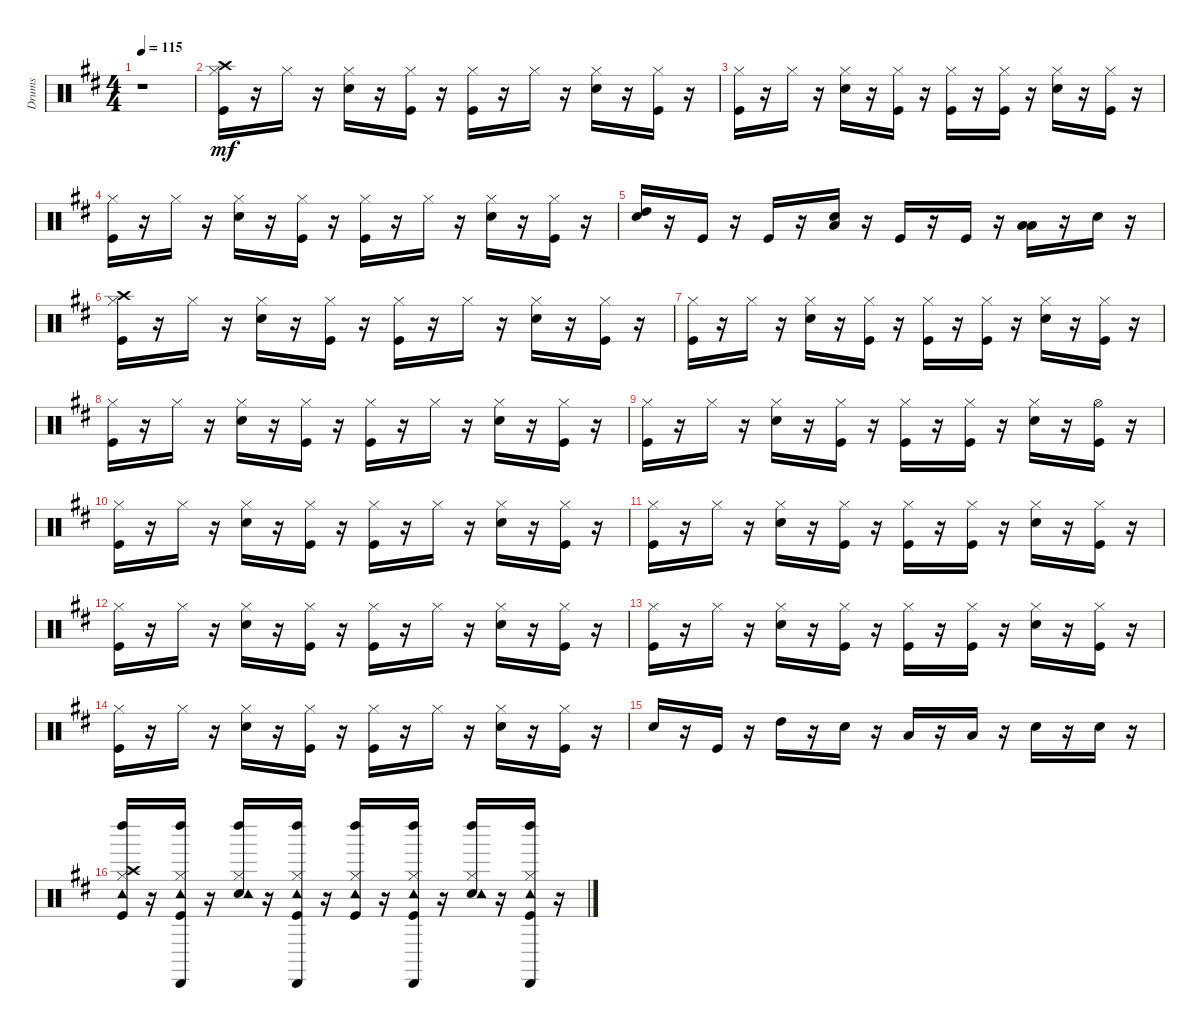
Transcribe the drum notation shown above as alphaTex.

\track ("Drums" "Drums") {instrument percussion}
\staff {score}
\articulation defaults
\ts (4 4)
\tempo 115
\clef neutral
\ks bminor
r.1{dy mf} |
("Kick (hit)" "Hi-Hat (closed)" "Crash high (hit)").16 r.16 "Hi-Hat (closed)".16 r.16 ("Snare (hit) 2" "Hi-Hat (closed)").16 r.16 ("Kick (hit)" "Hi-Hat (closed)").16 r.16 ("Kick (hit)" "Hi-Hat (closed)").16 r.16 "Hi-Hat (closed)".16 r.16 ("Snare (hit) 2" "Hi-Hat (closed)").16 r.16 ("Kick (hit)" "Hi-Hat (closed)").16 r.16 |
("Kick (hit)" "Hi-Hat (closed)").16 r.16 "Hi-Hat (closed)".16 r.16 ("Snare (hit) 2" "Hi-Hat (closed)").16 r.16 ("Kick (hit)" "Hi-Hat (closed)").16 r.16 ("Kick (hit)" "Hi-Hat (closed)").16 r.16 ("Kick (hit)" "Hi-Hat (closed)").16 r.16 ("Snare (hit) 2" "Hi-Hat (closed)").16 r.16 ("Kick (hit)" "Hi-Hat (closed)").16 r.16 |
("Kick (hit)" "Hi-Hat (closed)").16 r.16 "Hi-Hat (closed)".16 r.16 ("Snare (hit) 2" "Hi-Hat (closed)").16 r.16 ("Kick (hit)" "Hi-Hat (closed)").16 r.16 ("Kick (hit)" "Hi-Hat (closed)").16 r.16 "Hi-Hat (closed)".16 r.16 ("Snare (hit) 2" "Hi-Hat (closed)").16 r.16 ("Kick (hit)" "Hi-Hat (closed)").16 r.16 |
("Snare (hit) 2" "High Tom (hit)").16 r.16 "Kick (hit)".16 r.16 "Kick (hit)".16 r.16 ("Snare (hit) 2" "Low Tom (hit)").16 r.16 "Kick (hit)".16 r.16 "Kick (hit)".16 r.16 ("Low Floor Tom (hit)" "Low Tom (hit)").16 r.16 "Snare (hit) 2".16 r.16 |
("Kick (hit)" "Hi-Hat (closed)" "Crash high (hit)").16 r.16 "Hi-Hat (closed)".16 r.16 ("Snare (hit) 2" "Hi-Hat (closed)").16 r.16 ("Kick (hit)" "Hi-Hat (closed)").16 r.16 ("Kick (hit)" "Hi-Hat (closed)").16 r.16 "Hi-Hat (closed)".16 r.16 ("Snare (hit) 2" "Hi-Hat (closed)").16 r.16 ("Kick (hit)" "Hi-Hat (closed)").16 r.16 |
("Kick (hit)" "Hi-Hat (closed)").16 r.16 "Hi-Hat (closed)".16 r.16 ("Snare (hit) 2" "Hi-Hat (closed)").16 r.16 ("Kick (hit)" "Hi-Hat (closed)").16 r.16 ("Kick (hit)" "Hi-Hat (closed)").16 r.16 ("Kick (hit)" "Hi-Hat (closed)").16 r.16 ("Snare (hit) 2" "Hi-Hat (closed)").16 r.16 ("Kick (hit)" "Hi-Hat (closed)").16 r.16 |
("Kick (hit)" "Hi-Hat (closed)").16 r.16 "Hi-Hat (closed)".16 r.16 ("Snare (hit) 2" "Hi-Hat (closed)").16 r.16 ("Kick (hit)" "Hi-Hat (closed)").16 r.16 ("Kick (hit)" "Hi-Hat (closed)").16 r.16 "Hi-Hat (closed)".16 r.16 ("Snare (hit) 2" "Hi-Hat (closed)").16 r.16 ("Kick (hit)" "Hi-Hat (closed)").16 r.16 |
("Kick (hit)" "Hi-Hat (closed)").16 r.16 "Hi-Hat (closed)".16 r.16 ("Snare (hit) 2" "Hi-Hat (closed)").16 r.16 ("Kick (hit)" "Hi-Hat (closed)").16 r.16 ("Kick (hit)" "Hi-Hat (closed)").16 r.16 ("Kick (hit)" "Hi-Hat (closed)").16 r.16 ("Snare (hit) 2" "Hi-Hat (closed)").16 r.16 ("Kick (hit)" "Hi-Hat (open)").16 r.16 |
("Kick (hit)" "Hi-Hat (closed)").16 r.16 "Hi-Hat (closed)".16 r.16 ("Snare (hit) 2" "Hi-Hat (closed)").16 r.16 ("Kick (hit)" "Hi-Hat (closed)").16 r.16 ("Kick (hit)" "Hi-Hat (closed)").16 r.16 "Hi-Hat (closed)".16 r.16 ("Snare (hit) 2" "Hi-Hat (closed)").16 r.16 ("Kick (hit)" "Hi-Hat (closed)").16 r.16 |
("Kick (hit)" "Hi-Hat (closed)").16 r.16 "Hi-Hat (closed)".16 r.16 ("Snare (hit) 2" "Hi-Hat (closed)").16 r.16 ("Kick (hit)" "Hi-Hat (closed)").16 r.16 ("Kick (hit)" "Hi-Hat (closed)").16 r.16 ("Kick (hit)" "Hi-Hat (closed)").16 r.16 ("Snare (hit) 2" "Hi-Hat (closed)").16 r.16 ("Kick (hit)" "Hi-Hat (closed)").16 r.16 |
("Kick (hit)" "Hi-Hat (closed)").16 r.16 "Hi-Hat (closed)".16 r.16 ("Snare (hit) 2" "Hi-Hat (closed)").16 r.16 ("Kick (hit)" "Hi-Hat (closed)").16 r.16 ("Kick (hit)" "Hi-Hat (closed)").16 r.16 "Hi-Hat (closed)".16 r.16 ("Snare (hit) 2" "Hi-Hat (closed)").16 r.16 ("Kick (hit)" "Hi-Hat (closed)").16 r.16 |
("Kick (hit)" "Hi-Hat (closed)").16 r.16 "Hi-Hat (closed)".16 r.16 ("Snare (hit) 2" "Hi-Hat (closed)").16 r.16 ("Kick (hit)" "Hi-Hat (closed)").16 r.16 ("Kick (hit)" "Hi-Hat (closed)").16 r.16 ("Kick (hit)" "Hi-Hat (closed)").16 r.16 ("Snare (hit) 2" "Hi-Hat (closed)").16 r.16 ("Kick (hit)" "Hi-Hat (closed)").16 r.16 |
("Kick (hit)" "Hi-Hat (closed)").16 r.16 "Hi-Hat (closed)".16 r.16 ("Snare (hit) 2" "Hi-Hat (closed)").16 r.16 ("Kick (hit)" "Hi-Hat (closed)").16 r.16 ("Kick (hit)" "Hi-Hat (closed)").16 r.16 "Hi-Hat (closed)".16 r.16 ("Snare (hit) 2" "Hi-Hat (closed)").16 r.16 ("Kick (hit)" "Hi-Hat (closed)").16 r.16 |
"Snare (hit) 2".16 r.16 "Kick (hit)".16 r.16 "High Tom (hit)".16 r.16 "Snare (hit) 2".16 r.16 "Low Tom (hit)".16 r.16 "Low Tom (hit)".16 r.16 "Snare (hit) 2".16 r.16 "Snare (hit) 2".16 r.16 |
("Kick (hit)" "Hi-Hat (closed)" "Crash high (hit)" "Tambourine (hit)" "Left Maraca (hit)").16 r.16 ("Kick (hit)" "Hi-Hat (closed)" "Tambourine (hit)" "Cabasa (hit)" "Left Maraca (hit)").16 r.16 ("Snare (hit) 2" "Hi-Hat (closed)" "Tambourine (hit)" "Left Maraca (hit)").16 r.16 ("Kick (hit)" "Hi-Hat (closed)" "Tambourine (hit)" "Cabasa (hit)" "Left Maraca (hit)").16 r.16 ("Kick (hit)" "Hi-Hat (closed)" "Tambourine (hit)" "Left Maraca (hit)").16 r.16 ("Kick (hit)" "Hi-Hat (closed)" "Tambourine (hit)" "Cabasa (hit)" "Left Maraca (hit)").16 r.16 ("Snare (hit) 2" "Hi-Hat (closed)" "Tambourine (hit)" "Left Maraca (hit)").16 r.16 ("Kick (hit)" "Hi-Hat (closed)" "Tambourine (hit)" "Cabasa (hit)" "Left Maraca (hit)").16 r.16
